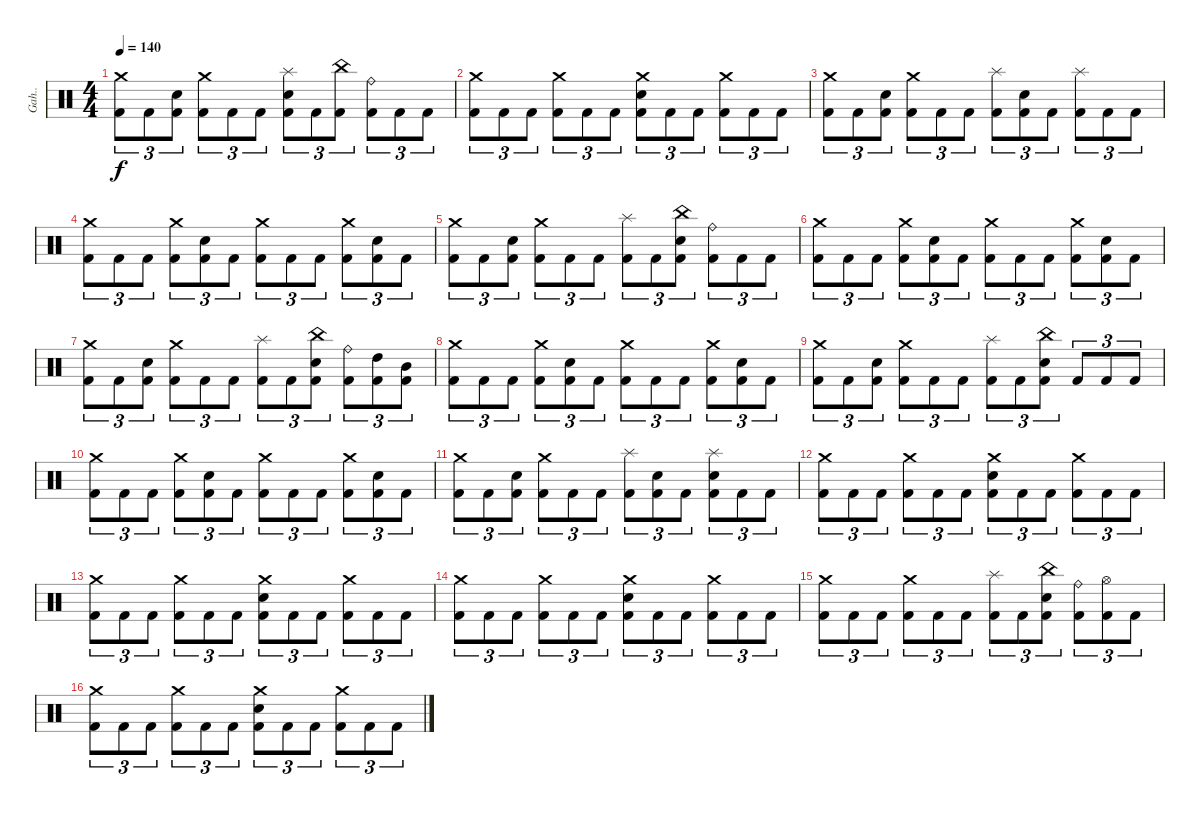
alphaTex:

\track ("Gah.." "Gah..") {instrument percussion}
\staff {score}
\articulation defaults
\ts (4 4)
\tempo 140
\clef neutral
\ks c
("Crash medium (hit)" "Kick (hit) 2").8{tu (3 2) dy f} "Kick (hit) 2".8{tu (3 2)} ("Electric Snare (hit)" "Kick (hit) 2").8{tu (3 2)} ("Crash medium (hit)" "Kick (hit) 2").8{tu (3 2)} "Kick (hit) 2".8{tu (3 2)} "Kick (hit) 2".8{tu (3 2)} ("Splash (hit)" "Electric Snare (hit)" "Kick (hit) 2").8{tu (3 2)} "Kick (hit) 2".8{tu (3 2)} ("China (hit)" "Kick (hit) 2").8{tu (3 2)} ("Ride (bell)" "Kick (hit) 2").8{tu (3 2)} "Kick (hit) 2".8{tu (3 2)} "Kick (hit) 2".8{tu (3 2)} |
("Crash medium (hit)" "Kick (hit) 2").8{tu (3 2)} "Kick (hit) 2".8{tu (3 2)} "Kick (hit) 2".8{tu (3 2)} ("Crash medium (hit)" "Kick (hit) 2").8{tu (3 2)} "Kick (hit) 2".8{tu (3 2)} "Kick (hit) 2".8{tu (3 2)} ("Crash medium (hit)" "Electric Snare (hit)" "Kick (hit) 2").8{tu (3 2)} "Kick (hit) 2".8{tu (3 2)} "Kick (hit) 2".8{tu (3 2)} ("Crash medium (hit)" "Kick (hit) 2").8{tu (3 2)} "Kick (hit) 2".8{tu (3 2)} "Kick (hit) 2".8{tu (3 2)} |
("Crash medium (hit)" "Kick (hit) 2").8{tu (3 2)} "Kick (hit) 2".8{tu (3 2)} ("Electric Snare (hit)" "Kick (hit) 2").8{tu (3 2)} ("Crash medium (hit)" "Kick (hit) 2").8{tu (3 2)} "Kick (hit) 2".8{tu (3 2)} "Kick (hit) 2".8{tu (3 2)} ("Splash (hit)" "Kick (hit) 2").8{tu (3 2)} ("Electric Snare (hit)" "Kick (hit) 2").8{tu (3 2)} "Kick (hit) 2".8{tu (3 2)} ("Splash (hit)" "Kick (hit) 2").8{tu (3 2)} "Kick (hit) 2".8{tu (3 2)} "Kick (hit) 2".8{tu (3 2)} |
("Crash medium (hit)" "Kick (hit) 2").8{tu (3 2)} "Kick (hit) 2".8{tu (3 2)} "Kick (hit) 2".8{tu (3 2)} ("Crash medium (hit)" "Kick (hit) 2").8{tu (3 2)} ("Electric Snare (hit)" "Kick (hit) 2").8{tu (3 2)} "Kick (hit) 2".8{tu (3 2)} ("Crash medium (hit)" "Kick (hit) 2").8{tu (3 2)} "Kick (hit) 2".8{tu (3 2)} "Kick (hit) 2".8{tu (3 2)} ("Crash medium (hit)" "Kick (hit) 2").8{tu (3 2)} ("Electric Snare (hit)" "Kick (hit) 2").8{tu (3 2)} "Kick (hit) 2".8{tu (3 2)} |
("Crash medium (hit)" "Kick (hit) 2").8{tu (3 2)} "Kick (hit) 2".8{tu (3 2)} ("Electric Snare (hit)" "Kick (hit) 2").8{tu (3 2)} ("Crash medium (hit)" "Kick (hit) 2").8{tu (3 2)} "Kick (hit) 2".8{tu (3 2)} "Kick (hit) 2".8{tu (3 2)} ("Splash (hit)" "Kick (hit) 2").8{tu (3 2)} "Kick (hit) 2".8{tu (3 2)} ("China (hit)" "Electric Snare (hit)" "Kick (hit) 2").8{tu (3 2)} ("Ride (bell)" "Kick (hit) 2").8{tu (3 2)} "Kick (hit) 2".8{tu (3 2)} "Kick (hit) 2".8{tu (3 2)} |
("Crash medium (hit)" "Kick (hit) 2").8{tu (3 2)} "Kick (hit) 2".8{tu (3 2)} "Kick (hit) 2".8{tu (3 2)} ("Crash medium (hit)" "Kick (hit) 2").8{tu (3 2)} ("Electric Snare (hit)" "Kick (hit) 2").8{tu (3 2)} "Kick (hit) 2".8{tu (3 2)} ("Crash medium (hit)" "Kick (hit) 2").8{tu (3 2)} "Kick (hit) 2".8{tu (3 2)} "Kick (hit) 2".8{tu (3 2)} ("Crash medium (hit)" "Kick (hit) 2").8{tu (3 2)} ("Electric Snare (hit)" "Kick (hit) 2").8{tu (3 2)} "Kick (hit) 2".8{tu (3 2)} |
("Crash medium (hit)" "Kick (hit) 2").8{tu (3 2)} "Kick (hit) 2".8{tu (3 2)} ("Electric Snare (hit)" "Kick (hit) 2").8{tu (3 2)} ("Crash medium (hit)" "Kick (hit) 2").8{tu (3 2)} "Kick (hit) 2".8{tu (3 2)} "Kick (hit) 2".8{tu (3 2)} ("Splash (hit)" "Kick (hit) 2").8{tu (3 2)} "Kick (hit) 2".8{tu (3 2)} ("China (hit)" "Electric Snare (hit)" "Kick (hit) 2").8{tu (3 2)} ("Ride (bell)" "Kick (hit) 2").8{tu (3 2)} ("High Tom (hit)" "Kick (hit) 2").8{tu (3 2)} ("Mid Tom (hit)" "Kick (hit) 2").8{tu (3 2)} |
("Crash medium (hit)" "Kick (hit) 2").8{tu (3 2)} "Kick (hit) 2".8{tu (3 2)} "Kick (hit) 2".8{tu (3 2)} ("Crash medium (hit)" "Kick (hit) 2").8{tu (3 2)} ("Electric Snare (hit)" "Kick (hit) 2").8{tu (3 2)} "Kick (hit) 2".8{tu (3 2)} ("Crash medium (hit)" "Kick (hit) 2").8{tu (3 2)} "Kick (hit) 2".8{tu (3 2)} "Kick (hit) 2".8{tu (3 2)} ("Crash medium (hit)" "Kick (hit) 2").8{tu (3 2)} ("Electric Snare (hit)" "Kick (hit) 2").8{tu (3 2)} "Kick (hit) 2".8{tu (3 2)} |
("Crash medium (hit)" "Kick (hit) 2").8{tu (3 2)} "Kick (hit) 2".8{tu (3 2)} ("Electric Snare (hit)" "Kick (hit) 2").8{tu (3 2)} ("Crash medium (hit)" "Kick (hit) 2").8{tu (3 2)} "Kick (hit) 2".8{tu (3 2)} "Kick (hit) 2".8{tu (3 2)} ("Splash (hit)" "Kick (hit) 2").8{tu (3 2)} "Kick (hit) 2".8{tu (3 2)} ("China (hit)" "Electric Snare (hit)" "Kick (hit) 2").8{tu (3 2)} "Kick (hit) 2".8{tu (3 2)} "Kick (hit) 2".8{tu (3 2)} "Kick (hit) 2".8{tu (3 2)} |
("Crash medium (hit)" "Kick (hit) 2").8{tu (3 2)} "Kick (hit) 2".8{tu (3 2)} "Kick (hit) 2".8{tu (3 2)} ("Crash medium (hit)" "Kick (hit) 2").8{tu (3 2)} ("Electric Snare (hit)" "Kick (hit) 2").8{tu (3 2)} "Kick (hit) 2".8{tu (3 2)} ("Crash medium (hit)" "Kick (hit) 2").8{tu (3 2)} "Kick (hit) 2".8{tu (3 2)} "Kick (hit) 2".8{tu (3 2)} ("Crash medium (hit)" "Kick (hit) 2").8{tu (3 2)} ("Electric Snare (hit)" "Kick (hit) 2").8{tu (3 2)} "Kick (hit) 2".8{tu (3 2)} |
("Crash medium (hit)" "Kick (hit) 2").8{tu (3 2)} "Kick (hit) 2".8{tu (3 2)} ("Electric Snare (hit)" "Kick (hit) 2").8{tu (3 2)} ("Crash medium (hit)" "Kick (hit) 2").8{tu (3 2)} "Kick (hit) 2".8{tu (3 2)} "Kick (hit) 2".8{tu (3 2)} ("Splash (hit)" "Kick (hit) 2").8{tu (3 2)} ("Electric Snare (hit)" "Kick (hit) 2").8{tu (3 2)} "Kick (hit) 2".8{tu (3 2)} ("Splash (hit)" "Electric Snare (hit)" "Kick (hit) 2").8{tu (3 2)} "Kick (hit) 2".8{tu (3 2)} "Kick (hit) 2".8{tu (3 2)} |
("Crash medium (hit)" "Kick (hit) 2").8{tu (3 2) volume 14} "Kick (hit) 2".8{tu (3 2)} "Kick (hit) 2".8{tu (3 2)} ("Crash medium (hit)" "Kick (hit) 2").8{tu (3 2)} "Kick (hit) 2".8{tu (3 2)} "Kick (hit) 2".8{tu (3 2)} ("Crash medium (hit)" "Electric Snare (hit)" "Kick (hit) 2").8{tu (3 2)} "Kick (hit) 2".8{tu (3 2)} "Kick (hit) 2".8{tu (3 2)} ("Crash medium (hit)" "Kick (hit) 2").8{tu (3 2)} "Kick (hit) 2".8{tu (3 2)} "Kick (hit) 2".8{tu (3 2)} |
("Crash medium (hit)" "Kick (hit) 2").8{tu (3 2) volume 12} "Kick (hit) 2".8{tu (3 2)} "Kick (hit) 2".8{tu (3 2)} ("Crash medium (hit)" "Kick (hit) 2").8{tu (3 2)} "Kick (hit) 2".8{tu (3 2)} "Kick (hit) 2".8{tu (3 2)} ("Crash medium (hit)" "Electric Snare (hit)" "Kick (hit) 2").8{tu (3 2)} "Kick (hit) 2".8{tu (3 2)} "Kick (hit) 2".8{tu (3 2)} ("Crash medium (hit)" "Kick (hit) 2").8{tu (3 2)} "Kick (hit) 2".8{tu (3 2)} "Kick (hit) 2".8{tu (3 2)} |
("Crash medium (hit)" "Kick (hit) 2").8{tu (3 2) volume 10} "Kick (hit) 2".8{tu (3 2)} "Kick (hit) 2".8{tu (3 2)} ("Crash medium (hit)" "Kick (hit) 2").8{tu (3 2)} "Kick (hit) 2".8{tu (3 2)} "Kick (hit) 2".8{tu (3 2)} ("Crash medium (hit)" "Electric Snare (hit)" "Kick (hit) 2").8{tu (3 2)} "Kick (hit) 2".8{tu (3 2)} "Kick (hit) 2".8{tu (3 2)} ("Crash medium (hit)" "Kick (hit) 2").8{tu (3 2)} "Kick (hit) 2".8{tu (3 2)} "Kick (hit) 2".8{tu (3 2)} |
("Crash medium (hit)" "Kick (hit) 2").8{tu (3 2) volume 8} "Kick (hit) 2".8{tu (3 2)} "Kick (hit) 2".8{tu (3 2)} ("Crash medium (hit)" "Kick (hit) 2").8{tu (3 2)} "Kick (hit) 2".8{tu (3 2)} "Kick (hit) 2".8{tu (3 2)} ("Splash (hit)" "Kick (hit) 2").8{tu (3 2)} "Kick (hit) 2".8{tu (3 2)} ("China (hit)" "Electric Snare (hit)" "Kick (hit) 2").8{tu (3 2)} ("Ride (bell)" "Kick (hit) 2").8{tu (3 2)} ("Hi-Hat (open)" "Kick (hit) 2").8{tu (3 2)} "Kick (hit) 2".8{tu (3 2)} |
("Crash medium (hit)" "Kick (hit) 2").8{tu (3 2) volume 6} "Kick (hit) 2".8{tu (3 2)} "Kick (hit) 2".8{tu (3 2)} ("Crash medium (hit)" "Kick (hit) 2").8{tu (3 2)} "Kick (hit) 2".8{tu (3 2)} "Kick (hit) 2".8{tu (3 2)} ("Crash medium (hit)" "Electric Snare (hit)" "Kick (hit) 2").8{tu (3 2)} "Kick (hit) 2".8{tu (3 2)} "Kick (hit) 2".8{tu (3 2)} ("Crash medium (hit)" "Kick (hit) 2").8{tu (3 2)} "Kick (hit) 2".8{tu (3 2)} "Kick (hit) 2".8{tu (3 2)}
